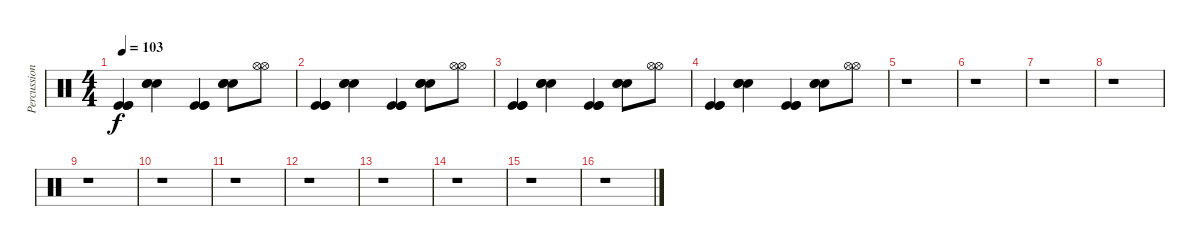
\track ("Percussion (Wall prt. 2)" "Percussion") {instrument percussion}
\staff {score}
\articulation defaults
\ts (4 4)
\tempo 103
\clef neutral
\ks c
("Kick (hit)" "Kick (hit)" "Kick (hit)").4{dy f} ("Snare (hit) 2" "Snare (hit) 2" "Snare (hit) 2").4 ("Kick (hit)" "Kick (hit)" "Kick (hit)").4 ("Snare (hit) 2" "Snare (hit) 2" "Snare (hit) 2").8 ("Hi-Hat (open)" "Hi-Hat (open)").8 |
("Kick (hit)" "Kick (hit)" "Kick (hit)").4 ("Snare (hit) 2" "Snare (hit) 2" "Snare (hit) 2").4 ("Kick (hit)" "Kick (hit)" "Kick (hit)").4 ("Snare (hit) 2" "Snare (hit) 2" "Snare (hit) 2").8 ("Hi-Hat (open)" "Hi-Hat (open)").8 |
("Kick (hit)" "Kick (hit)" "Kick (hit)").4 ("Snare (hit) 2" "Snare (hit) 2" "Snare (hit) 2").4 ("Kick (hit)" "Kick (hit)" "Kick (hit)").4 ("Snare (hit) 2" "Snare (hit) 2" "Snare (hit) 2").8 ("Hi-Hat (open)" "Hi-Hat (open)").8 |
("Kick (hit)" "Kick (hit)" "Kick (hit)").4 ("Snare (hit) 2" "Snare (hit) 2" "Snare (hit) 2").4 ("Kick (hit)" "Kick (hit)" "Kick (hit)").4 ("Snare (hit) 2" "Snare (hit) 2" "Snare (hit) 2").8 ("Hi-Hat (open)" "Hi-Hat (open)").8 |
r.1 |
r.1 |
r.1 |
r.1 |
r.1 |
r.1 |
r.1 |
r.1 |
r.1 |
r.1 |
r.1 |
r.1
